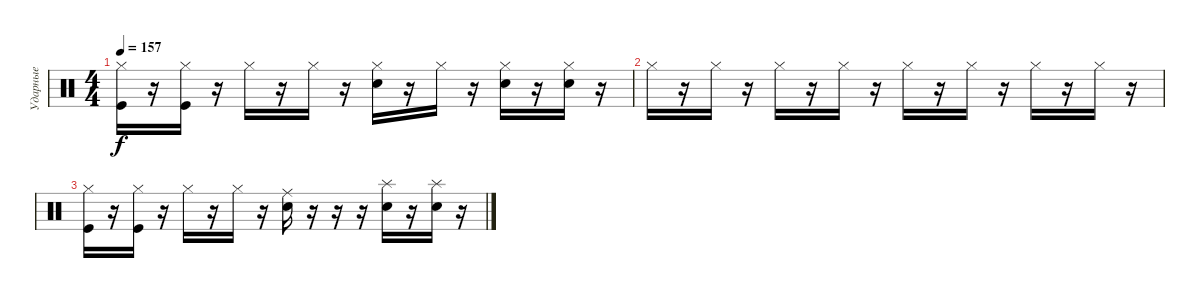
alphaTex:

\track ("Ударные" "Ударные") {instrument percussion}
\staff {score}
\articulation defaults
\ts (4 4)
\tempo 157
\clef neutral
\ks c
("Hi-Hat (closed)" "Kick (hit)").16{dy f} r.16 ("Hi-Hat (closed)" "Kick (hit)").16 r.16 "Hi-Hat (closed)".16 r.16 "Hi-Hat (closed)".16 r.16 ("Hi-Hat (closed)" "Electric Snare (hit)").16 r.16 "Hi-Hat (closed)".16 r.16 ("Hi-Hat (closed)" "Electric Snare (hit)").16 r.16 ("Hi-Hat (closed)" "Electric Snare (hit)").16 r.16 |
"Hi-Hat (closed)".16 r.16 "Hi-Hat (closed)".16 r.16 "Hi-Hat (closed)".16 r.16 "Hi-Hat (closed)".16 r.16 "Hi-Hat (closed)".16 r.16 "Hi-Hat (closed)".16 r.16 "Hi-Hat (closed)".16 r.16 "Hi-Hat (closed)".16 r.16 |
("Hi-Hat (closed)" "Kick (hit)").16 r.16 ("Hi-Hat (closed)" "Kick (hit)").16 r.16 "Hi-Hat (closed)".16 r.16 "Hi-Hat (closed)".16 r.16 ("Ride (middle)" "Electric Snare (hit)").16 r.16 r.16 r.16 ("Splash (hit)" "Electric Snare (hit)").16 r.16 ("Splash (hit)" "Electric Snare (hit)").16 r.16
